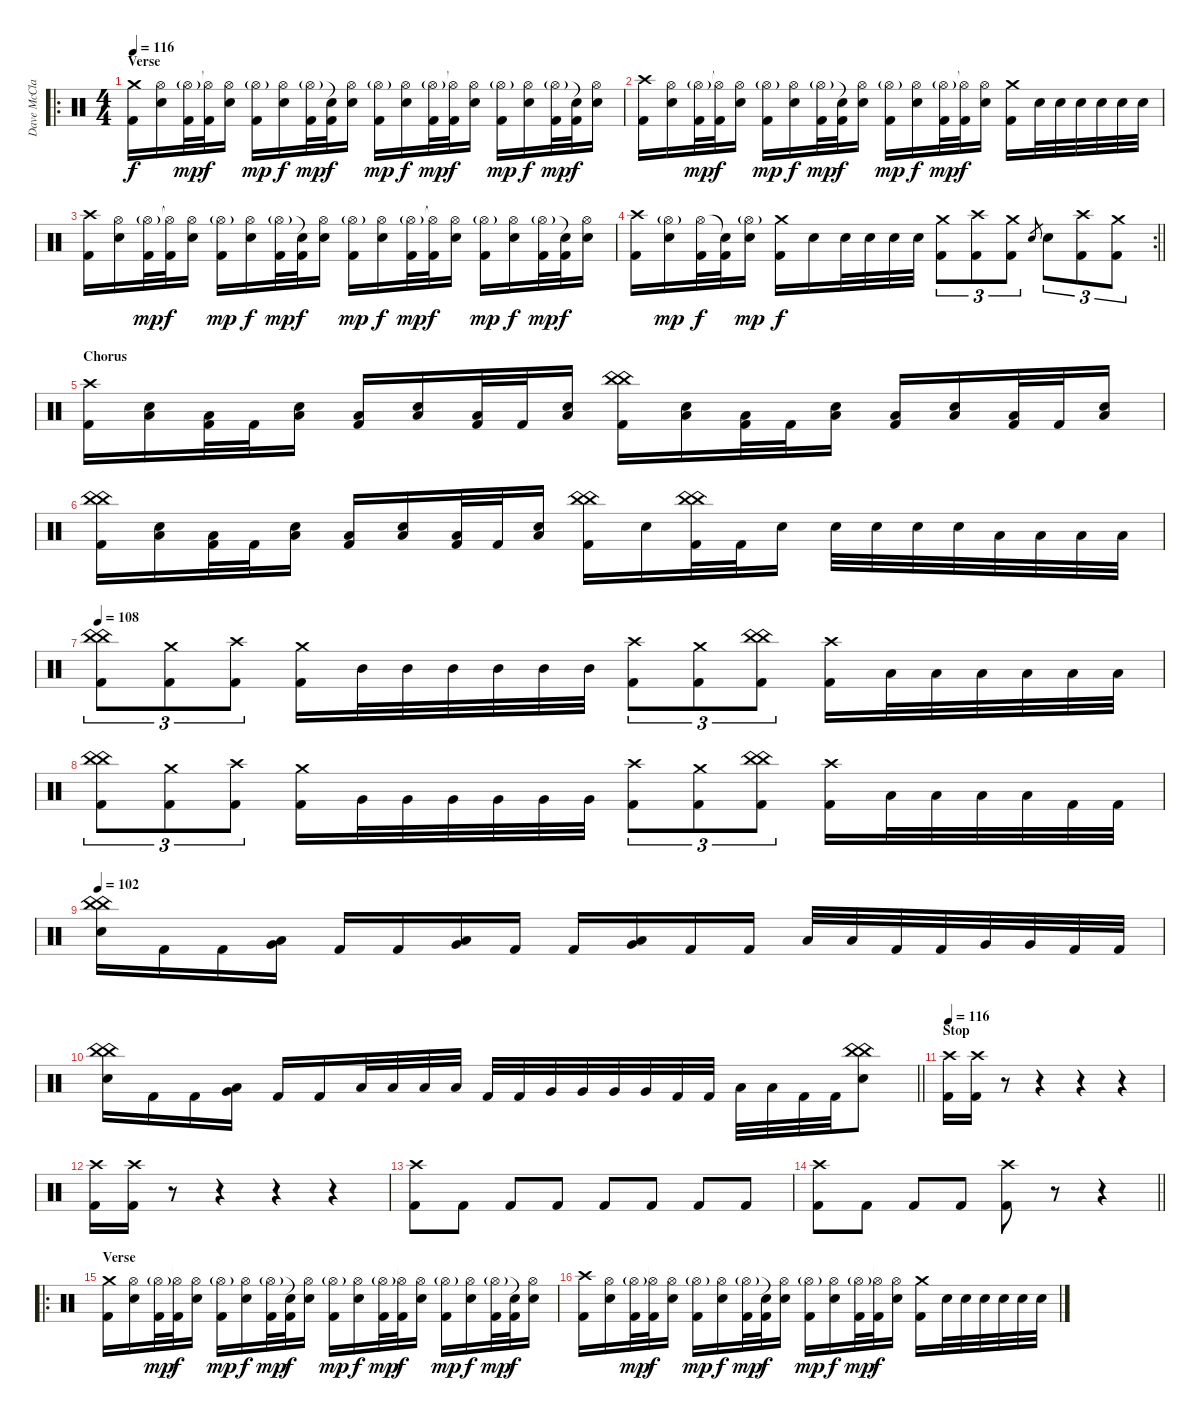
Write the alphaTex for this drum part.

\track ("Dave McClain (drums)" "Dave McCla") {instrument percussion}
\staff {score}
\articulation defaults
\ro
\ts (4 4)
\section ("" "Verse")
\tempo 116
\clef neutral
\ks c
("Crash medium (hit)" "Kick (hit) 2").16{dy f} ("Hi-Hat (open)" "Electric Snare (hit)").16 ("Hi-Hat (open)"{g} "Kick (hit) 2").32{dy mp} ("Hi-Hat (open)"{t} "Kick (hit) 2").32{dy f} ("Hi-Hat (open)" "Electric Snare (hit)").16 ("Hi-Hat (open)"{g} "Kick (hit) 2").16{dy mp} ("Hi-Hat (open)" "Electric Snare (hit)").16{dy f} ("Hi-Hat (open)"{g} "Kick (hit) 2").32{dy mp} ("Snare (hit)"{t} "Kick (hit) 2").32{dy f} ("Hi-Hat (open)" "Electric Snare (hit)").16 ("Hi-Hat (open)"{g} "Kick (hit) 2").16{dy mp} ("Hi-Hat (open)" "Electric Snare (hit)").16{dy f} ("Hi-Hat (open)"{g} "Kick (hit) 2").32{dy mp} ("Hi-Hat (open)"{t} "Kick (hit) 2").32{dy f} ("Hi-Hat (open)" "Electric Snare (hit)").16 ("Hi-Hat (open)"{g} "Kick (hit) 2").16{dy mp} ("Hi-Hat (open)" "Electric Snare (hit)").16{dy f} ("Hi-Hat (open)"{g} "Kick (hit) 2").32{dy mp} ("Snare (hit)"{t} "Kick (hit) 2").32{dy f} ("Hi-Hat (open)" "Electric Snare (hit)").16 |
("Crash high (hit)" "Kick (hit) 2").16 ("Hi-Hat (open)" "Electric Snare (hit)").16 ("Hi-Hat (open)"{g} "Kick (hit) 2").32{dy mp} ("Hi-Hat (open)"{t} "Kick (hit) 2").32{dy f} ("Hi-Hat (open)" "Electric Snare (hit)").16 ("Hi-Hat (open)"{g} "Kick (hit) 2").16{dy mp} ("Hi-Hat (open)" "Electric Snare (hit)").16{dy f} ("Hi-Hat (open)"{g} "Kick (hit) 2").32{dy mp} ("Snare (hit)"{t} "Kick (hit) 2").32{dy f} ("Hi-Hat (open)" "Electric Snare (hit)").16 ("Hi-Hat (open)"{g} "Kick (hit) 2").16{dy mp} ("Hi-Hat (open)" "Electric Snare (hit)").16{dy f} ("Hi-Hat (open)"{g} "Kick (hit) 2").32{dy mp} ("Hi-Hat (open)"{t} "Kick (hit) 2").32{dy f} ("Hi-Hat (open)" "Electric Snare (hit)").16 ("Crash medium (hit)" "Kick (hit) 2").16 "Electric Snare (hit)".32 "Electric Snare (hit)".32 "Electric Snare (hit)".32 "Electric Snare (hit)".32 "Electric Snare (hit)".32 "Electric Snare (hit)".32 |
("Crash high (hit)" "Kick (hit) 2").16 ("Hi-Hat (open)" "Electric Snare (hit)").16 ("Hi-Hat (open)"{g} "Kick (hit) 2").32{dy mp} ("Hi-Hat (open)"{t} "Kick (hit) 2").32{dy f} ("Hi-Hat (open)" "Electric Snare (hit)").16 ("Hi-Hat (open)"{g} "Kick (hit) 2").16{dy mp} ("Hi-Hat (open)" "Electric Snare (hit)").16{dy f} ("Hi-Hat (open)"{g} "Kick (hit) 2").32{dy mp} ("Snare (hit)"{t} "Kick (hit) 2").32{dy f} ("Hi-Hat (open)" "Electric Snare (hit)").16 ("Hi-Hat (open)"{g} "Kick (hit) 2").16{dy mp} ("Hi-Hat (open)" "Electric Snare (hit)").16{dy f} ("Hi-Hat (open)"{g} "Kick (hit) 2").32{dy mp} ("Hi-Hat (open)"{t} "Kick (hit) 2").32{dy f} ("Hi-Hat (open)" "Electric Snare (hit)").16 ("Hi-Hat (open)"{g} "Kick (hit) 2").16{dy mp} ("Hi-Hat (open)" "Electric Snare (hit)").16{dy f} ("Hi-Hat (open)"{g} "Kick (hit) 2").32{dy mp} ("Snare (hit)"{t} "Kick (hit) 2").32{dy f} ("Hi-Hat (open)" "Electric Snare (hit)").16 |
\rc 2
\barLineRight lightlight
("Crash high (hit)" "Kick (hit) 2").16 ("Hi-Hat (open)"{g} "Electric Snare (hit)").16{dy mp} ("Hi-Hat (open)" "Kick (hit) 2").32{dy f} ("Snare (hit)"{t} "Kick (hit) 2").32 ("Hi-Hat (open)"{g} "Electric Snare (hit)").16{dy mp} ("Crash medium (hit)" "Kick (hit) 2").16{dy f} "Electric Snare (hit)".16 "Electric Snare (hit)".32 "Electric Snare (hit)".32 "Electric Snare (hit)".32 "Electric Snare (hit)".32 ("Crash medium (hit)" "Kick (hit) 2").8{tu (3 2)} ("Crash high (hit)" "Kick (hit) 2").8{tu (3 2)} ("Crash medium (hit)" "Kick (hit) 2").8{tu (3 2)} "Electric Snare (hit)".8{gr} "Electric Snare (hit)".8{tu (3 2)} ("Crash high (hit)" "Kick (hit) 2").8{tu (3 2)} ("Crash medium (hit)" "Kick (hit) 2").8{tu (3 2)} |
\section ("" "Chorus")
("Crash high (hit)" "Kick (hit) 2").16 ("Electric Snare (hit)" "Low Floor Tom (hit)").16 ("Low Floor Tom (hit)" "Kick (hit) 2").32 "Kick (hit) 2".32 ("Electric Snare (hit)" "Low Floor Tom (hit)").16 ("Low Floor Tom (hit)" "Kick (hit) 2").16 ("Electric Snare (hit)" "Low Floor Tom (hit)").16 ("Low Floor Tom (hit)" "Kick (hit) 2").32 "Kick (hit) 2".32 ("Electric Snare (hit)" "Low Floor Tom (hit)").16 ("China (hit)" "China (hit)" "Kick (hit) 2").16 ("Electric Snare (hit)" "Low Floor Tom (hit)").16 ("Low Floor Tom (hit)" "Kick (hit) 2").32 "Kick (hit) 2".32 ("Electric Snare (hit)" "Low Floor Tom (hit)").16 ("Low Floor Tom (hit)" "Kick (hit) 2").16 ("Electric Snare (hit)" "Low Floor Tom (hit)").16 ("Low Floor Tom (hit)" "Kick (hit) 2").32 "Kick (hit) 2".32 ("Electric Snare (hit)" "Low Floor Tom (hit)").16 |
("China (hit)" "China (hit)" "Kick (hit) 2").16 ("Electric Snare (hit)" "Low Floor Tom (hit)").16 ("Low Floor Tom (hit)" "Kick (hit) 2").32 "Kick (hit) 2".32 ("Electric Snare (hit)" "Low Floor Tom (hit)").16 ("Low Floor Tom (hit)" "Kick (hit) 2").16 ("Electric Snare (hit)" "Low Floor Tom (hit)").16 ("Low Floor Tom (hit)" "Kick (hit) 2").32 "Kick (hit) 2".32 ("Electric Snare (hit)" "Low Floor Tom (hit)").16 ("China (hit)" "China (hit)" "Kick (hit) 2").16 "Electric Snare (hit)".16 ("China (hit)" "China (hit)" "Kick (hit) 2").32 "Kick (hit) 2".32 "Electric Snare (hit)".16 "Electric Snare (hit)".32 "Electric Snare (hit)".32 "Electric Snare (hit)".32 "Electric Snare (hit)".32 "Low Tom (hit)".32 "Low Tom (hit)".32 "Low Tom (hit)".32 "Low Tom (hit)".32 |
\tempo 106
\tempo 108
("China (hit)" "China (hit)" "Kick (hit) 2").8{tu (3 2)} ("Crash medium (hit)" "Kick (hit) 2").8{tu (3 2)} ("Crash high (hit)" "Kick (hit) 2").8{tu (3 2)} ("Crash medium (hit)" "Kick (hit) 2").16 "Mid Tom (hit)".32 "Mid Tom (hit)".32 "Mid Tom (hit)".32 "Mid Tom (hit)".32 "Mid Tom (hit)".32 "Mid Tom (hit)".32 ("Crash high (hit)" "Kick (hit) 2").8{tu (3 2)} ("Crash medium (hit)" "Kick (hit) 2").8{tu (3 2)} ("China (hit)" "China (hit)" "Kick (hit) 2").8{tu (3 2)} ("Crash high (hit)" "Kick (hit) 2").16 "Low Tom (hit)".32 "Low Tom (hit)".32 "Low Tom (hit)".32 "Low Tom (hit)".32 "Low Tom (hit)".32 "Low Tom (hit)".32 |
("China (hit)" "China (hit)" "Kick (hit) 2").8{tu (3 2)} ("Crash medium (hit)" "Kick (hit) 2").8{tu (3 2)} ("Crash high (hit)" "Kick (hit) 2").8{tu (3 2)} ("Crash medium (hit)" "Kick (hit) 2").16 "Very Low Tom (hit)".32 "Very Low Tom (hit)".32 "Very Low Tom (hit)".32 "Very Low Tom (hit)".32 "Very Low Tom (hit)".32 "Very Low Tom (hit)".32 ("Crash high (hit)" "Kick (hit) 2").8{tu (3 2)} ("Crash medium (hit)" "Kick (hit) 2").8{tu (3 2)} ("China (hit)" "China (hit)" "Kick (hit) 2").8{tu (3 2)} ("Crash high (hit)" "Kick (hit) 2").16 "Low Floor Tom (hit)".32 "Low Floor Tom (hit)".32 "Low Floor Tom (hit)".32 "Low Floor Tom (hit)".32 "Kick (hit) 2".32 "Kick (hit) 2".32 |
\tempo 102
("China (hit)" "China (hit)" "Electric Snare (hit)").16 "Kick (hit) 2".16 "Kick (hit) 2".16 ("Very Low Tom (hit)" "Low Floor Tom (hit)").16 "Kick (hit) 2".16 "Kick (hit) 2".16 ("Very Low Tom (hit)" "Low Floor Tom (hit)").16 "Kick (hit) 2".16 "Kick (hit) 2".16 ("Very Low Tom (hit)" "Low Floor Tom (hit)").16 "Kick (hit) 2".16 "Kick (hit) 2".16 "Low Tom (hit)".32 "Low Tom (hit)".32 "Kick (hit) 2".32 "Kick (hit) 2".32 "Very Low Tom (hit)".32 "Very Low Tom (hit)".32 "Kick (hit) 2".32 "Kick (hit) 2".32 |
\barLineRight lightlight
("China (hit)" "China (hit)" "Electric Snare (hit)").16 "Kick (hit) 2".16 "Kick (hit) 2".16 ("Very Low Tom (hit)" "Low Floor Tom (hit)").16 "Kick (hit) 2".16 "Kick (hit) 2".16 "Low Tom (hit)".32 "Low Tom (hit)".32 "Low Tom (hit)".32 "Low Tom (hit)".32 "Kick (hit) 2".32 "Kick (hit) 2".32 "Very Low Tom (hit)".32 "Very Low Tom (hit)".32 "Very Low Tom (hit)".32 "Very Low Tom (hit)".32 "Kick (hit) 2".32 "Kick (hit) 2".32 "Low Floor Tom (hit)".32 "Low Floor Tom (hit)".32 "Kick (hit) 2".32 "Kick (hit) 2".32 ("China (hit)" "China (hit)" "Electric Snare (hit)").8 |
\section ("" "Stop")
\tempo 116
("Crash high (hit)" "Kick (hit) 2").16 ("Crash high (hit)" "Kick (hit) 2").16 r.8 r.4 r.4 r.4 |
("Crash high (hit)" "Kick (hit) 2").16 ("Crash high (hit)" "Kick (hit) 2").16 r.8 r.4 r.4 r.4 |
("Crash high (hit)" "Kick (hit) 2").8 "Kick (hit) 2".8 "Kick (hit) 2".8 "Kick (hit) 2".8 "Kick (hit) 2".8 "Kick (hit) 2".8 "Kick (hit) 2".8 "Kick (hit) 2".8 |
\barLineRight lightlight
("Crash high (hit)" "Kick (hit) 2").8 "Kick (hit) 2".8 "Kick (hit) 2".8 "Kick (hit) 2".8 ("Crash high (hit)" "Kick (hit) 2").8 r.8 r.4 |
\ro
\section ("" "Verse")
("Crash medium (hit)" "Kick (hit) 2").16 ("Hi-Hat (open)" "Electric Snare (hit)").16 ("Hi-Hat (open)"{g} "Kick (hit) 2").32{dy mp} ("Hi-Hat (open)"{t} "Kick (hit) 2").32{dy f} ("Hi-Hat (open)" "Electric Snare (hit)").16 ("Hi-Hat (open)"{g} "Kick (hit) 2").16{dy mp} ("Hi-Hat (open)" "Electric Snare (hit)").16{dy f} ("Hi-Hat (open)"{g} "Kick (hit) 2").32{dy mp} ("Snare (hit)"{t} "Kick (hit) 2").32{dy f} ("Hi-Hat (open)" "Electric Snare (hit)").16 ("Hi-Hat (open)"{g} "Kick (hit) 2").16{dy mp} ("Hi-Hat (open)" "Electric Snare (hit)").16{dy f} ("Hi-Hat (open)"{g} "Kick (hit) 2").32{dy mp} ("Hi-Hat (open)"{t} "Kick (hit) 2").32{dy f} ("Hi-Hat (open)" "Electric Snare (hit)").16 ("Hi-Hat (open)"{g} "Kick (hit) 2").16{dy mp} ("Hi-Hat (open)" "Electric Snare (hit)").16{dy f} ("Hi-Hat (open)"{g} "Kick (hit) 2").32{dy mp} ("Snare (hit)"{t} "Kick (hit) 2").32{dy f} ("Hi-Hat (open)" "Electric Snare (hit)").16 |
("Crash high (hit)" "Kick (hit) 2").16 ("Hi-Hat (open)" "Electric Snare (hit)").16 ("Hi-Hat (open)"{g} "Kick (hit) 2").32{dy mp} ("Hi-Hat (open)"{t} "Kick (hit) 2").32{dy f} ("Hi-Hat (open)" "Electric Snare (hit)").16 ("Hi-Hat (open)"{g} "Kick (hit) 2").16{dy mp} ("Hi-Hat (open)" "Electric Snare (hit)").16{dy f} ("Hi-Hat (open)"{g} "Kick (hit) 2").32{dy mp} ("Snare (hit)"{t} "Kick (hit) 2").32{dy f} ("Hi-Hat (open)" "Electric Snare (hit)").16 ("Hi-Hat (open)"{g} "Kick (hit) 2").16{dy mp} ("Hi-Hat (open)" "Electric Snare (hit)").16{dy f} ("Hi-Hat (open)"{g} "Kick (hit) 2").32{dy mp} ("Hi-Hat (open)"{t} "Kick (hit) 2").32{dy f} ("Hi-Hat (open)" "Electric Snare (hit)").16 ("Crash medium (hit)" "Kick (hit) 2").16 "Electric Snare (hit)".32 "Electric Snare (hit)".32 "Electric Snare (hit)".32 "Electric Snare (hit)".32 "Electric Snare (hit)".32 "Electric Snare (hit)".32
